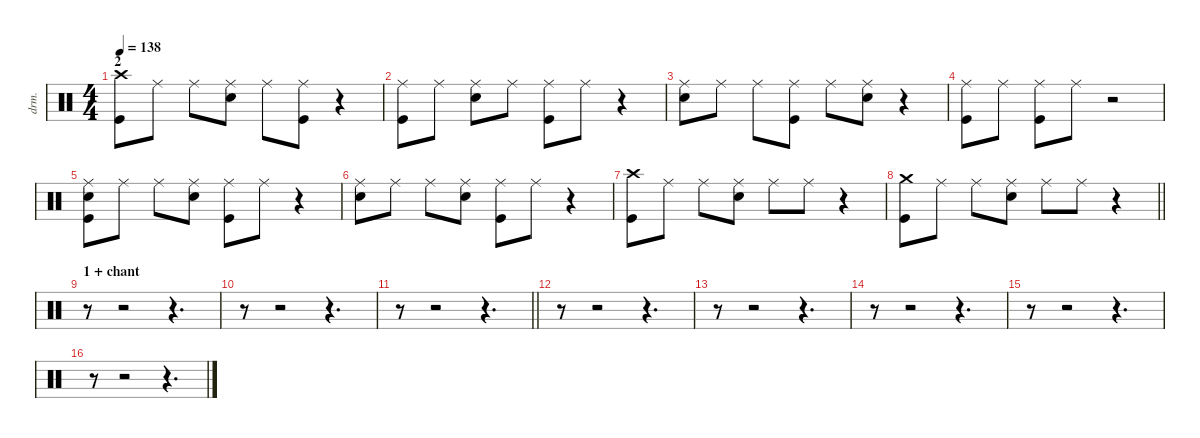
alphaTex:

\defaultSystemsLayout 4
\hideDynamics
\bracketExtendMode nobrackets
\track ("Percussions" "drm.") {instrument percussion}
\staff {score}
\articulation defaults
\ts (4 4)
\section ("" "2")
\tempo 138
\clef neutral
\ks aminor
("Crash high (hit)" "Kick (hit)").8{dy f} "Ride (middle)".8{dy mp} "Ride (middle)".8 ("Ride (middle)" "Snare (hit) 2").8{dy f} "Ride (middle)".8{dy mp} ("Ride (middle)" "Kick (hit)").8 r.4 |
("Ride (middle)" "Kick (hit)").8{dy f} "Ride (middle)".8{dy mp} ("Ride (middle)" "Snare (hit) 2").8 "Ride (middle)".8{dy f} ("Ride (middle)" "Kick (hit)").8{dy mp} "Ride (middle)".8 r.4 |
("Ride (middle)" "Snare (hit) 2").8{dy f} "Ride (middle)".8{dy mp} "Ride (middle)".8 ("Ride (middle)" "Kick (hit)").8{dy f} "Ride (middle)".8{dy mp} ("Ride (middle)" "Snare (hit) 2").8 r.4 |
("Ride (middle)" "Kick (hit)").8{dy f} "Ride (middle)".8{dy mp} ("Ride (middle)" "Kick (hit)").8 "Ride (middle)".8{dy f} r.2 |
("Ride (middle)" "Snare (hit) 2" "Kick (hit)").8 "Ride (middle)".8{dy mp} "Ride (middle)".8 ("Ride (middle)" "Snare (hit) 2").8{dy f} ("Ride (middle)" "Kick (hit)").8{dy mp} "Ride (middle)".8 r.4 |
("Ride (middle)" "Snare (hit) 2").8{dy f} "Ride (middle)".8{dy mp} "Ride (middle)".8 ("Ride (middle)" "Snare (hit) 2").8{dy f} ("Ride (middle)" "Kick (hit)").8{dy mp} "Ride (middle)".8 r.4 |
("Crash high (hit)" "Kick (hit)").8{dy f} "Ride (middle)".8{dy mp} "Ride (middle)".8 ("Ride (middle)" "Snare (hit) 2").8{dy f} "Ride (middle)".8{dy mp} "Ride (middle)".8 r.4 |
\barLineRight lightlight
("Crash medium (hit)" "Kick (hit)").8{dy f} "Ride (middle)".8{dy mp} "Ride (middle)".8 ("Ride (middle)" "Snare (hit) 2").8{dy f} "Ride (middle)".8{dy mp} "Ride (middle)".8 r.4 |
\section ("" "1 + chant")
r.8 r.2 r.4{d} |
r.8 r.2 r.4{d} |
\barLineRight lightlight
r.8 r.2 r.4{d} |
r.8 r.2 r.4{d} |
r.8 r.2 r.4{d} |
r.8 r.2 r.4{d} |
r.8 r.2 r.4{d} |
r.8 r.2 r.4{d}
